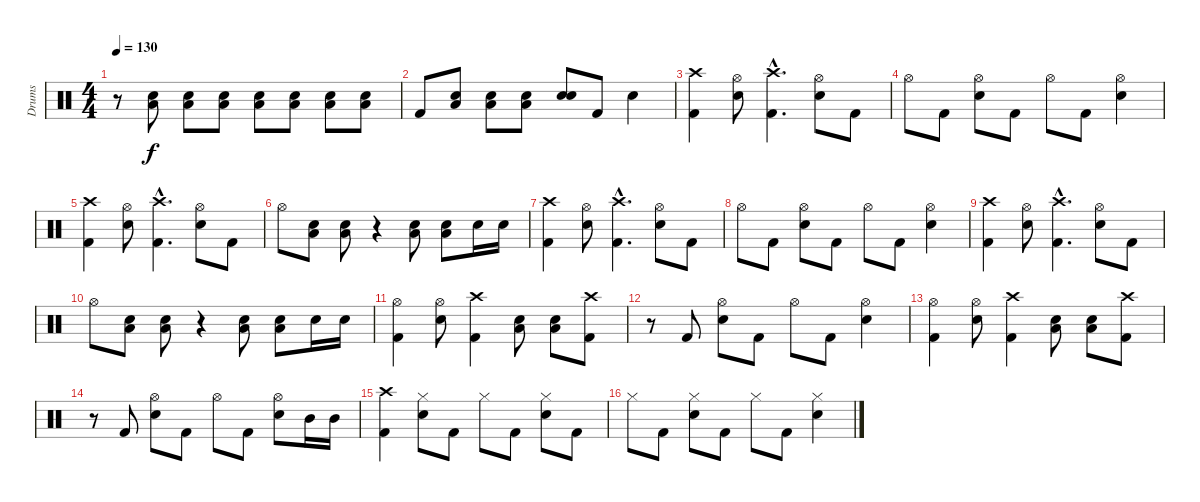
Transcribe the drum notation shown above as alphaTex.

\track ("Drums" "Drums") {instrument percussion}
\staff {score}
\articulation defaults
\ts (4 4)
\tempo 130
\clef neutral
\ks c
r.8{dy f} ("Low Floor Tom (hit)" "Snare (hit) 2").8 ("Low Floor Tom (hit)" "Snare (hit) 2").8 ("Low Floor Tom (hit)" "Snare (hit) 2").8 ("Low Floor Tom (hit)" "Snare (hit) 2").8 ("Low Floor Tom (hit)" "Snare (hit) 2").8 ("Low Floor Tom (hit)" "Snare (hit) 2").8 ("Low Floor Tom (hit)" "Snare (hit) 2").8 |
"Kick (hit) 2".8 ("Low Floor Tom (hit)" "Snare (hit) 2").8 ("Low Floor Tom (hit)" "Snare (hit) 2").8 ("Low Floor Tom (hit)" "Snare (hit) 2").8 ("Snare (hit) 2" "Snare (hit) 2").8{bd 240} "Kick (hit) 2".8 "Snare (hit) 2".4 |
("Crash high (hit)" "Kick (hit) 2").4 ("Hi-Hat (open)" "Snare (hit) 2").8 ("Crash high (hit)"{hac} "Kick (hit) 2"{hac}).4{d} ("Hi-Hat (open)" "Snare (hit) 2").8 "Kick (hit) 2".8 |
"Hi-Hat (open)".8 "Kick (hit) 2".8 ("Hi-Hat (open)" "Snare (hit) 2").8 "Kick (hit) 2".8 "Hi-Hat (open)".8 "Kick (hit) 2".8 ("Hi-Hat (open)" "Snare (hit) 2").4 |
("Crash high (hit)" "Kick (hit) 2").4 ("Hi-Hat (open)" "Snare (hit) 2").8 ("Crash high (hit)"{hac} "Kick (hit) 2"{hac}).4{d} ("Hi-Hat (open)" "Snare (hit) 2").8 "Kick (hit) 2".8 |
"Hi-Hat (open)".8 ("Low Floor Tom (hit)" "Snare (hit) 2").8 ("Low Floor Tom (hit)" "Snare (hit) 2").8 r.4 ("Low Floor Tom (hit)" "Snare (hit) 2").8 ("Low Floor Tom (hit)" "Snare (hit) 2").8 "Snare (hit) 2".16 "Snare (hit) 2".16 |
("Crash high (hit)" "Kick (hit) 2").4 ("Hi-Hat (open)" "Snare (hit) 2").8 ("Crash high (hit)"{hac} "Kick (hit) 2"{hac}).4{d} ("Hi-Hat (open)" "Snare (hit) 2").8 "Kick (hit) 2".8 |
"Hi-Hat (open)".8 "Kick (hit) 2".8 ("Hi-Hat (open)" "Snare (hit) 2").8 "Kick (hit) 2".8 "Hi-Hat (open)".8 "Kick (hit) 2".8 ("Hi-Hat (open)" "Snare (hit) 2").4 |
("Crash high (hit)" "Kick (hit) 2").4 ("Hi-Hat (open)" "Snare (hit) 2").8 ("Crash high (hit)"{hac} "Kick (hit) 2"{hac}).4{d} ("Hi-Hat (open)" "Snare (hit) 2").8 "Kick (hit) 2".8 |
"Hi-Hat (open)".8 ("Low Floor Tom (hit)" "Snare (hit) 2").8 ("Low Floor Tom (hit)" "Snare (hit) 2").8 r.4 ("Low Floor Tom (hit)" "Snare (hit) 2").8 ("Low Floor Tom (hit)" "Snare (hit) 2").8 "Snare (hit) 2".16 "Snare (hit) 2".16 |
("Hi-Hat (open)" "Kick (hit) 2").4 ("Hi-Hat (open)" "Snare (hit) 2").8 ("Crash high (hit)" "Kick (hit) 2").4 ("Low Floor Tom (hit)" "Snare (hit) 2").8 ("Low Floor Tom (hit)" "Snare (hit) 2").8 ("Crash high (hit)" "Kick (hit) 2").8 |
r.8 "Kick (hit) 2".8 ("Hi-Hat (open)" "Snare (hit) 2").8 "Kick (hit) 2".8 "Hi-Hat (open)".8 "Kick (hit) 2".8 ("Hi-Hat (open)" "Snare (hit) 2").4 |
("Hi-Hat (open)" "Kick (hit) 2").4 ("Hi-Hat (open)" "Snare (hit) 2").8 ("Crash high (hit)" "Kick (hit) 2").4 ("Low Floor Tom (hit)" "Snare (hit) 2").8 ("Low Floor Tom (hit)" "Snare (hit) 2").8 ("Crash high (hit)" "Kick (hit) 2").8 |
r.8 "Kick (hit) 2".8 ("Hi-Hat (open)" "Snare (hit) 2").8 "Kick (hit) 2".8 "Hi-Hat (open)".8 "Kick (hit) 2".8 ("Hi-Hat (open)" "Snare (hit) 2").8 "Mid Tom (hit)".16 "Mid Tom (hit)".16 |
("Crash high (hit)" "Kick (hit) 2").4 ("Hi-Hat (closed)" "Snare (hit) 2").8 "Kick (hit) 2".8 "Hi-Hat (closed)".8 "Kick (hit) 2".8 ("Hi-Hat (closed)" "Snare (hit) 2").8 "Kick (hit) 2".8 |
"Hi-Hat (closed)".8 "Kick (hit) 2".8 ("Hi-Hat (closed)" "Snare (hit) 2").8 "Kick (hit) 2".8 "Hi-Hat (closed)".8 "Kick (hit) 2".8 ("Hi-Hat (closed)" "Snare (hit) 2").4
